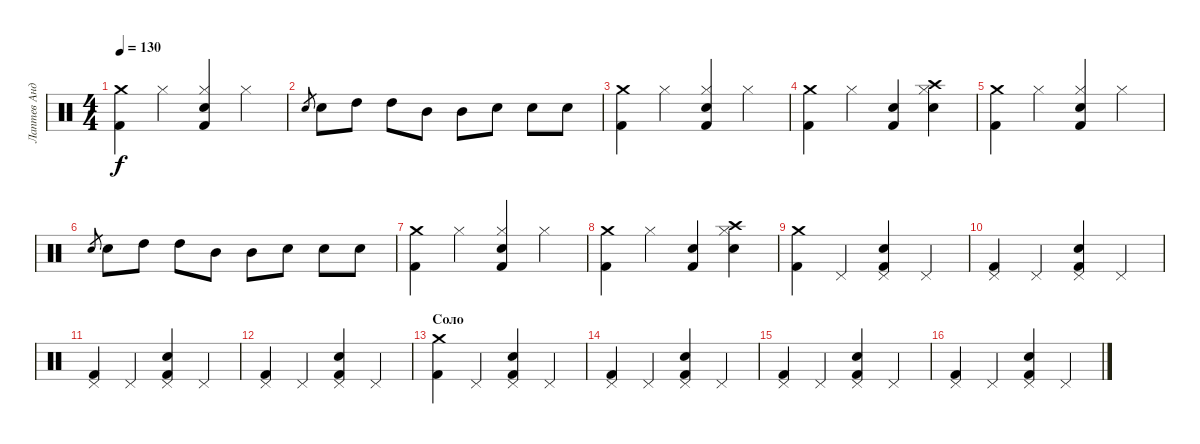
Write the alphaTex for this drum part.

\track ("Лаптев Андрей" "Лаптев Анд") {instrument percussion}
\staff {score}
\articulation defaults
\ts (4 4)
\tempo 130
\clef neutral
\ks c
("Crash medium (hit)" "Kick (hit) 2").4{dy f} "Hi-Hat (closed)".4 ("Kick (hit) 2" "Electric Snare (hit)" "Hi-Hat (closed)").4 "Hi-Hat (closed)".4 |
"Electric Snare (hit)".8{gr} "Electric Snare (hit)".8 "High Tom (hit)".8 "High Tom (hit)".8 "Mid Tom (hit)".8 "Mid Tom (hit)".8 "Electric Snare (hit)".8 "Electric Snare (hit)".8 "Electric Snare (hit)".8 |
("Crash medium (hit)" "Kick (hit) 2").4 "Hi-Hat (closed)".4 ("Kick (hit) 2" "Electric Snare (hit)" "Hi-Hat (closed)").4 "Hi-Hat (closed)".4 |
("Crash medium (hit)" "Kick (hit) 2").4 "Hi-Hat (closed)".4 ("Kick (hit) 2" "Electric Snare (hit)").4 ("Hi-Hat (closed)" "Electric Snare (hit)" "Crash high (hit)").4 |
("Crash medium (hit)" "Kick (hit) 2").4 "Hi-Hat (closed)".4 ("Kick (hit) 2" "Electric Snare (hit)" "Hi-Hat (closed)").4 "Hi-Hat (closed)".4 |
"Electric Snare (hit)".8{gr} "Electric Snare (hit)".8 "High Tom (hit)".8 "High Tom (hit)".8 "Mid Tom (hit)".8 "Mid Tom (hit)".8 "Electric Snare (hit)".8 "Electric Snare (hit)".8 "Electric Snare (hit)".8 |
("Crash medium (hit)" "Kick (hit) 2").4 "Hi-Hat (closed)".4 ("Kick (hit) 2" "Electric Snare (hit)" "Hi-Hat (closed)").4 "Hi-Hat (closed)".4 |
("Crash medium (hit)" "Kick (hit) 2").4 "Hi-Hat (closed)".4 ("Kick (hit) 2" "Electric Snare (hit)").4 ("Hi-Hat (closed)" "Electric Snare (hit)" "Crash high (hit)").4 |
("Crash medium (hit)" "Kick (hit) 2").4 "Pedal Hi-Hat (hit)".4 ("Pedal Hi-Hat (hit)" "Electric Snare (hit)" "Kick (hit) 2").4 "Pedal Hi-Hat (hit)".4 |
("Kick (hit) 2" "Pedal Hi-Hat (hit)").4 "Pedal Hi-Hat (hit)".4 ("Pedal Hi-Hat (hit)" "Electric Snare (hit)" "Kick (hit) 2").4 "Pedal Hi-Hat (hit)".4 |
("Kick (hit) 2" "Pedal Hi-Hat (hit)").4 "Pedal Hi-Hat (hit)".4 ("Pedal Hi-Hat (hit)" "Electric Snare (hit)" "Kick (hit) 2").4 "Pedal Hi-Hat (hit)".4 |
("Kick (hit) 2" "Pedal Hi-Hat (hit)").4 "Pedal Hi-Hat (hit)".4 ("Pedal Hi-Hat (hit)" "Electric Snare (hit)" "Kick (hit) 2").4 "Pedal Hi-Hat (hit)".4 |
\section ("" "Соло")
("Crash medium (hit)" "Kick (hit) 2").4 "Pedal Hi-Hat (hit)".4 ("Pedal Hi-Hat (hit)" "Electric Snare (hit)" "Kick (hit) 2").4 "Pedal Hi-Hat (hit)".4 |
("Kick (hit) 2" "Pedal Hi-Hat (hit)").4 "Pedal Hi-Hat (hit)".4 ("Pedal Hi-Hat (hit)" "Electric Snare (hit)" "Kick (hit) 2").4 "Pedal Hi-Hat (hit)".4 |
("Kick (hit) 2" "Pedal Hi-Hat (hit)").4 "Pedal Hi-Hat (hit)".4 ("Pedal Hi-Hat (hit)" "Electric Snare (hit)" "Kick (hit) 2").4 "Pedal Hi-Hat (hit)".4 |
("Kick (hit) 2" "Pedal Hi-Hat (hit)").4 "Pedal Hi-Hat (hit)".4 ("Pedal Hi-Hat (hit)" "Electric Snare (hit)" "Kick (hit) 2").4 "Pedal Hi-Hat (hit)".4
